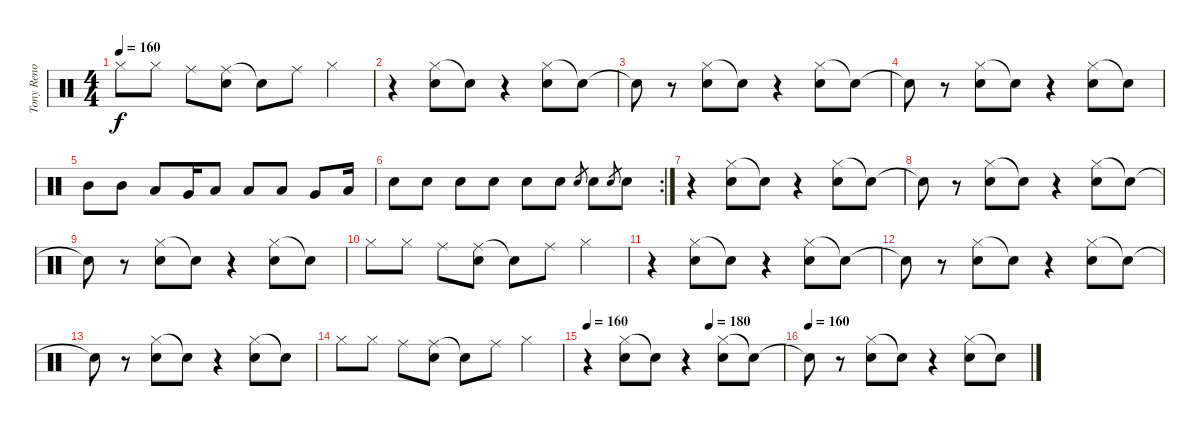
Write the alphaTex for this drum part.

\track ("Tony Reno" "Tony Reno") {instrument percussion}
\staff {score}
\articulation defaults
\ts (4 4)
\tempo 160
\clef neutral
\ks c "Hi-Hat (closed)".8{dy f} "Hi-Hat (closed)".8 "Ride (middle)".8
("Ride (middle)" "Snare (hit) 2").8 "Snare (hit)"{t}.8 "Ride (middle)".8 "Hi-Hat (closed)".4 |
r.4 ("Hi-Hat (closed)" "Snare (hit) 2").8 "Snare (hit)"{t}.8 r.4 ("Hi-Hat (closed)" "Snare (hit) 2").8 "Snare (hit)"{t}.8 |
"Snare (hit)"{t}.8 r.8 ("Hi-Hat (closed)" "Snare (hit) 2").8 "Snare (hit)"{t}.8 r.4 ("Hi-Hat (closed)" "Snare (hit) 2").8 "Snare (hit)"{t}.8 |
"Snare (hit)"{t}.8 r.8 ("Hi-Hat (closed)" "Snare (hit) 2").8 "Snare (hit)"{t}.8 r.4 ("Hi-Hat (closed)" "Snare (hit) 2").8 "Snare (hit)"{t}.8 |
"Mid Tom (hit)".8 "Mid Tom (hit)".8 "Low Tom (hit)".8 "Very Low Tom (hit)".16 "Low Tom (hit)".8 "Low Tom (hit)".8 "Low Floor Tom (hit)".8 "Very Low Tom (hit)".8 "Low Floor Tom (hit)".16 |
\rc 2 "Snare (hit) 2".8 "Snare (hit) 2".8 "Snare (hit) 2".8 "Snare (hit) 2".8 "Snare (hit) 2".8 "Snare (hit) 2".8 "Snare (hit) 2".8{gr} "Snare (hit) 2".8 "Snare (hit) 2".8{gr} "Snare (hit) 2".8
|
r.4 ("Hi-Hat (closed)" "Snare (hit) 2").8 "Snare (hit)"{t}.8 r.4 ("Hi-Hat (closed)" "Snare (hit) 2").8 "Snare (hit)"{t}.8 |
"Snare (hit)"{t}.8 r.8 ("Hi-Hat (closed)" "Snare (hit) 2").8 "Snare (hit)"{t}.8 r.4 ("Hi-Hat (closed)" "Snare (hit) 2").8 "Snare (hit)"{t}.8 |
"Snare (hit)"{t}.8 r.8 ("Hi-Hat (closed)" "Snare (hit) 2").8 "Snare (hit)"{t}.8 r.4 ("Hi-Hat (closed)" "Snare (hit) 2").8 "Snare (hit)"{t}.8 |
"Hi-Hat (closed)".8 "Hi-Hat (closed)".8 "Ride (middle)".8 ("Ride (middle)" "Snare (hit) 2").8 "Snare (hit)"{t}.8 "Ride (middle)".8 "Hi-Hat (closed)".4 |
r.4 ("Hi-Hat (closed)" "Snare (hit) 2").8 "Snare (hit)"{t}.8 r.4 ("Hi-Hat (closed)" "Snare (hit) 2").8 "Snare (hit)"{t}.8 |
"Snare (hit)"{t}.8 r.8 ("Hi-Hat (closed)" "Snare (hit) 2").8 "Snare (hit)"{t}.8 r.4 ("Hi-Hat (closed)" "Snare (hit) 2").8 "Snare (hit)"{t}.8 |
"Snare (hit)"{t}.8 r.8 ("Hi-Hat (closed)" "Snare (hit) 2").8 "Snare (hit)"{t}.8 r.4 ("Hi-Hat (closed)" "Snare (hit) 2").8 "Snare (hit)"{t}.8 |
"Hi-Hat (closed)".8 "Hi-Hat (closed)".8 "Ride (middle)".8 ("Ride (middle)" "Snare (hit) 2").8 "Snare (hit)"{t}.8 "Ride (middle)".8 "Hi-Hat (closed)".4 |
\tempo 160
\tempo (180 0.625)
r.4 ("Hi-Hat (closed)" "Snare (hit) 2").8 "Snare (hit)"{t}.8 r.4 ("Hi-Hat (closed)" "Snare (hit) 2").8 "Snare (hit)"{t}.8 |
\tempo (160)
"Snare (hit)"{t}.8 r.8 ("Hi-Hat (closed)" "Snare (hit) 2").8 "Snare (hit)"{t}.8 r.4 ("Hi-Hat (closed)" "Snare (hit) 2").8 "Snare (hit)"{t}.8
